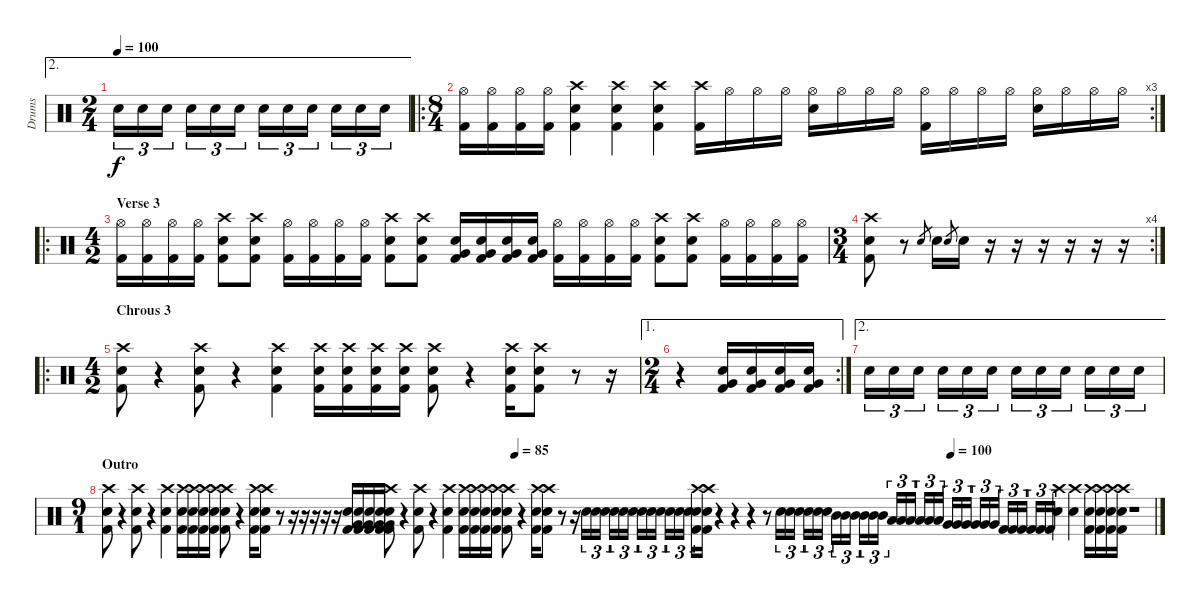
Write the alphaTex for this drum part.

\track ("Drums" "Drums") {instrument percussion}
\staff {score}
\articulation defaults
\ae 2
\ts (2 4)
\tempo 100
\clef neutral
\ks c "Electric Snare (hit)".16{tu (3 2) dy f} "Electric Snare (hit)".16{tu (3 2)} "Electric Snare (hit)".16{tu (3 2)} "Electric Snare (hit)".16{tu (3 2)} "Electric Snare (hit)".16{tu (3 2)} "Electric Snare (hit)".16{tu (3 2)} "Electric Snare (hit)".16{tu (3 2)} "Electric Snare (hit)".16{tu (3 2)} "Electric Snare (hit)".16{tu (3 2)} "Electric Snare (hit)".16{tu (3 2)} "Electric Snare (hit)".16{tu (3 2)} "Electric Snare (hit)".16{tu (3 2)}
|
\ro
\rc 3
\ts (8 4)
("Hi-Hat (open)" "Kick (hit) 2").16 ("Hi-Hat (open)" "Kick (hit) 2").16 ("Hi-Hat (open)" "Kick (hit) 2").16 ("Hi-Hat (open)" "Kick (hit) 2").16 ("Crash high (hit)" "Kick (hit) 2" "Electric Snare (hit)").4 ("Crash high (hit)" "Kick (hit) 2" "Electric Snare (hit)").4 ("Crash high (hit)" "Kick (hit) 2" "Electric Snare (hit)").4 ("Crash high (hit)" "Kick (hit) 2").16 "Hi-Hat (open)".16 "Hi-Hat (open)".16 "Hi-Hat (open)".16 ("Hi-Hat (open)" "Electric Snare (hit)").16 "Hi-Hat (open)".16 "Hi-Hat (open)".16 "Hi-Hat (open)".16 ("Hi-Hat (open)" "Kick (hit) 2").16 "Hi-Hat (open)".16 "Hi-Hat (open)".16 "Hi-Hat (open)".16 ("Hi-Hat (open)" "Electric Snare (hit)").16 "Hi-Hat (open)".16 "Hi-Hat (open)".16 "Hi-Hat (open)".16 |
\ro
\ts (4 2)
\section ("" "Verse 3")
("Hi-Hat (open)" "Kick (hit) 2").16 ("Hi-Hat (open)" "Kick (hit) 2").16 ("Hi-Hat (open)" "Kick (hit) 2").16 ("Hi-Hat (open)" "Kick (hit) 2").16 ("Crash high (hit)" "Electric Snare (hit)" "Kick (hit) 2").8 ("Crash high (hit)" "Electric Snare (hit)" "Kick (hit) 2").8 ("Hi-Hat (open)" "Kick (hit) 2").16 ("Hi-Hat (open)" "Kick (hit) 2").16 ("Hi-Hat (open)" "Kick (hit) 2").16 ("Hi-Hat (open)" "Kick (hit) 2").16 ("Crash high (hit)" "Electric Snare (hit)" "Kick (hit) 2").8 ("Crash high (hit)" "Electric Snare (hit)" "Kick (hit) 2").8 ("Very Low Tom (hit)" "Electric Snare (hit)" "Kick (hit) 2").16 ("Very Low Tom (hit)" "Electric Snare (hit)" "Kick (hit) 2").16 ("Very Low Tom (hit)" "Electric Snare (hit)" "Kick (hit) 2").16 ("Very Low Tom (hit)" "Electric Snare (hit)" "Kick (hit) 2").16 ("Hi-Hat (open)" "Kick (hit) 2").16 ("Hi-Hat (open)" "Kick (hit) 2").16 ("Hi-Hat (open)" "Kick (hit) 2").16 ("Hi-Hat (open)" "Kick (hit) 2").16 ("Crash high (hit)" "Electric Snare (hit)" "Kick (hit) 2").8 ("Crash high (hit)" "Electric Snare (hit)" "Kick (hit) 2").8 ("Hi-Hat (open)" "Kick (hit) 2").16 ("Hi-Hat (open)" "Kick (hit) 2").16 ("Hi-Hat (open)" "Kick (hit) 2").16 ("Hi-Hat (open)" "Kick (hit) 2").16 |
\rc 4
\ts (3 4)
("Crash high (hit)" "Electric Snare (hit)" "Kick (hit) 2").8 r.8 "Electric Snare (hit)".8{gr} "Electric Snare (hit)".16 "Electric Snare (hit)".8{gr} "Electric Snare (hit)".16 r.16 r.16 r.16 r.16 r.16 r.16 |
\ro
\ts (4 2)
\section ("" "Chrous 3")
("Crash high (hit)" "Electric Snare (hit)" "Kick (hit) 2").8 r.4 ("Crash high (hit)" "Electric Snare (hit)" "Kick (hit) 2").8 r.4 ("Crash high (hit)" "Electric Snare (hit)" "Kick (hit) 2").4 ("Crash high (hit)" "Electric Snare (hit)" "Kick (hit) 2").16 ("Crash high (hit)" "Electric Snare (hit)" "Kick (hit) 2").16 ("Crash high (hit)" "Electric Snare (hit)" "Kick (hit) 2").16 ("Crash high (hit)" "Electric Snare (hit)" "Kick (hit) 2").16 ("Crash high (hit)" "Electric Snare (hit)" "Kick (hit) 2").8 r.4 ("Crash high (hit)" "Electric Snare (hit)" "Kick (hit) 2").16 ("Crash high (hit)" "Electric Snare (hit)" "Kick (hit) 2").8 r.8 r.16 |
\ae 1
\rc 2
\ts (2 4)
r.4 ("Electric Snare (hit)" "Very Low Tom (hit)" "Kick (hit) 2").16 ("Electric Snare (hit)" "Very Low Tom (hit)" "Kick (hit) 2").16 ("Electric Snare (hit)" "Very Low Tom (hit)" "Kick (hit) 2").16 ("Electric Snare (hit)" "Very Low Tom (hit)" "Kick (hit) 2").16 |
\ae 2 "Electric Snare (hit)".16{tu (3 2)} "Electric Snare (hit)".16{tu (3 2)} "Electric Snare (hit)".16{tu (3 2)} "Electric Snare (hit)".16{tu (3 2)} "Electric Snare (hit)".16{tu (3 2)} "Electric Snare (hit)".16{tu (3 2)} "Electric Snare (hit)".16{tu (3 2)} "Electric Snare (hit)".16{tu (3 2)} "Electric Snare (hit)".16{tu (3 2)} "Electric Snare (hit)".16{tu (3 2)} "Electric Snare (hit)".16{tu (3 2)} "Electric Snare (hit)".16{tu (3 2)}
|
\ts (9 1)
\section ("" "Outro")
\tempo (85 0.3888888888888889)
\tempo (100 0.8055555555555556)
("Crash high (hit)" "Electric Snare (hit)" "Kick (hit) 2").8 r.4 ("Crash high (hit)" "Electric Snare (hit)" "Kick (hit) 2").8 r.4 ("Crash high (hit)" "Electric Snare (hit)" "Kick (hit) 2").4 ("Crash high (hit)" "Electric Snare (hit)" "Kick (hit) 2").16 ("Crash high (hit)" "Electric Snare (hit)" "Kick (hit) 2").16 ("Crash high (hit)" "Electric Snare (hit)" "Kick (hit) 2").16 ("Crash high (hit)" "Electric Snare (hit)" "Kick (hit) 2").16 ("Crash high (hit)" "Electric Snare (hit)" "Kick (hit) 2").8 r.4 ("Crash high (hit)" "Electric Snare (hit)" "Kick (hit) 2").16 ("Crash high (hit)" "Electric Snare (hit)" "Kick (hit) 2").8 r.8 r.16 r.16 r.16 r.16 r.16 ("Electric Snare (hit)" "Kick (hit) 2" "Very Low Tom (hit)").16 ("Electric Snare (hit)" "Kick (hit) 2" "Very Low Tom (hit)").16 ("Electric Snare (hit)" "Kick (hit) 2" "Very Low Tom (hit)").16 ("Electric Snare (hit)" "Kick (hit) 2" "Very Low Tom (hit)").16 ("Crash high (hit)" "Electric Snare (hit)" "Kick (hit) 2").8 r.4 ("Crash high (hit)" "Electric Snare (hit)" "Kick (hit) 2").8 r.4 ("Crash high (hit)" "Electric Snare (hit)" "Kick (hit) 2").4 ("Crash high (hit)" "Electric Snare (hit)" "Kick (hit) 2").16 ("Crash high (hit)" "Electric Snare (hit)" "Kick (hit) 2").16 ("Crash high (hit)" "Electric Snare (hit)" "Kick (hit) 2").16 ("Crash high (hit)" "Electric Snare (hit)" "Kick (hit) 2").16 ("Crash high (hit)" "Electric Snare (hit)" "Kick (hit) 2").8 r.4 ("Crash high (hit)" "Electric Snare (hit)" "Kick (hit) 2").16 ("Crash high (hit)" "Electric Snare (hit)" "Kick (hit) 2").8 r.8 r.16 "Electric Snare (hit)".16{tu (3 2)} "Electric Snare (hit)".16{tu (3 2)} "Electric Snare (hit)".16{tu (3 2)} "Electric Snare (hit)".16{tu (3 2)} "Electric Snare (hit)".16{tu (3 2)} "Electric Snare (hit)".16{tu (3 2)} "Electric Snare (hit)".16{tu (3 2)} "Electric Snare (hit)".16{tu (3 2)} "Electric Snare (hit)".16{tu (3 2)} "Electric Snare (hit)".16{tu (3 2)} "Electric Snare (hit)".16{tu (3 2)} "Electric Snare (hit)".16{tu (3 2)} ("Crash high (hit)" "Electric Snare (hit)" "Kick (hit) 2").16 ("Crash high (hit)" "Electric Snare (hit)" "Kick (hit) 2").16 r.4 r.4 r.4 r.8 "Electric Snare (hit)".16{tu (3 2)} "Electric Snare (hit)".16{tu (3 2)} "Electric Snare (hit)".16{tu (3 2)} "Electric Snare (hit)".16{tu (3 2)} "Electric Snare (hit)".16{tu (3 2)} "Electric Snare (hit)".16{tu (3 2)} "Mid Tom (hit)".16{tu (3 2)} "Mid Tom (hit)".16{tu (3 2)} "Mid Tom (hit)".16{tu (3 2)} "Mid Tom (hit)".16{tu (3 2)} "Mid Tom (hit)".16{tu (3 2)} "Mid Tom (hit)".16{tu (3 2)} "Low Tom (hit)".16{tu (3 2)} "Low Tom (hit)".16{tu (3 2)} "Low Tom (hit)".16{tu (3 2)} "Low Tom (hit)".16{tu (3 2)} "Low Tom (hit)".16{tu (3 2)} "Low Tom (hit)".16{tu (3 2)} "Very Low Tom (hit)".16{tu (3 2)} "Very Low Tom (hit)".16{tu (3 2)} "Very Low Tom (hit)".16{tu (3 2)} "Very Low Tom (hit)".16{tu (3 2)} "Very Low Tom (hit)".16{tu (3 2)} "Very Low Tom (hit)".16{tu (3 2)} "Kick (hit) 2".16{tu (3 2)} "Kick (hit) 2".16{tu (3 2)} "Kick (hit) 2".16{tu (3 2)} "Kick (hit) 2".16{tu (3 2)} "Kick (hit) 2".16{tu (3 2)} "Kick (hit) 2".16{tu (3 2)} ("Crash high (hit)" "Electric Snare (hit)").4 ("Crash high (hit)" "Electric Snare (hit)").4 ("Crash high (hit)" "Electric Snare (hit)" "Kick (hit) 2").16 ("Crash high (hit)" "Electric Snare (hit)" "Kick (hit) 2").16 ("Crash high (hit)" "Electric Snare (hit)" "Kick (hit) 2").16 ("Crash high (hit)" "Electric Snare (hit)" "Kick (hit) 2").16 r.1
